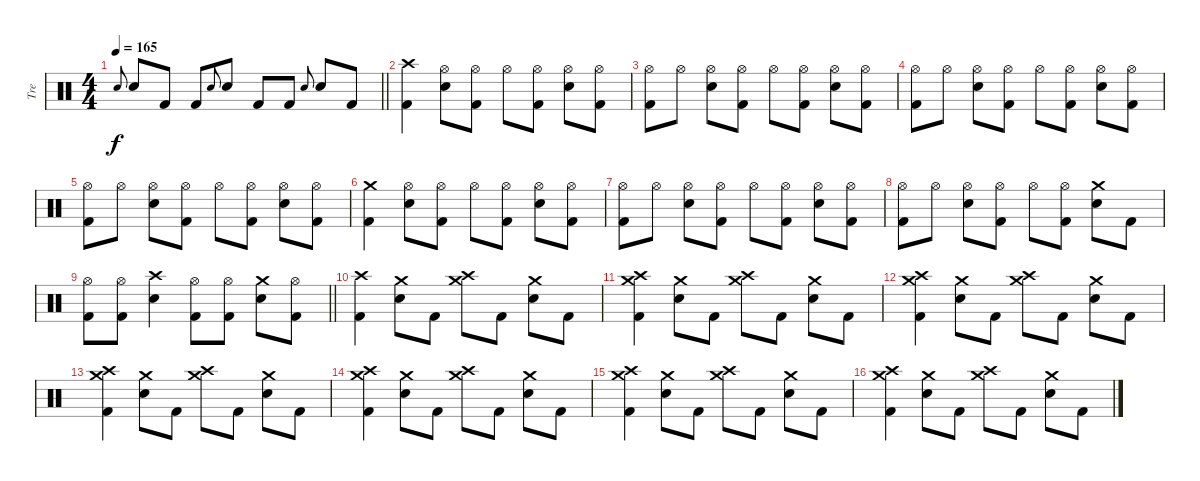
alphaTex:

\track ("Tre" "Tre") {instrument percussion}
\staff {score}
\articulation defaults
\ts (4 4)
\tempo 165
\clef neutral
\barLineRight lightlight
\ks c "Snare (hit) 2".8{gr onbeat dy f} "Snare (hit) 2".8 "Kick (hit) 2".8 "Kick (hit) 2".8 "Snare (hit) 2".8{gr onbeat} "Snare (hit) 2".8 "Kick (hit) 2".8 "Kick (hit) 2".8 "Snare (hit) 2".8{gr onbeat} "Snare (hit) 2".8 "Kick (hit) 2".8
|
("Crash high (hit)" "Kick (hit) 2").4 ("Hi-Hat (open)" "Snare (hit) 2").8 ("Hi-Hat (open)" "Kick (hit) 2").8 "Hi-Hat (open)".8 ("Hi-Hat (open)" "Kick (hit) 2").8 ("Hi-Hat (open)" "Snare (hit) 2").8 ("Hi-Hat (open)" "Kick (hit) 2").8 |
("Hi-Hat (open)" "Kick (hit) 2").8 "Hi-Hat (open)".8 ("Hi-Hat (open)" "Snare (hit) 2").8 ("Hi-Hat (open)" "Kick (hit) 2").8 "Hi-Hat (open)".8 ("Hi-Hat (open)" "Kick (hit) 2").8 ("Hi-Hat (open)" "Snare (hit) 2").8 ("Hi-Hat (open)" "Kick (hit) 2").8 |
("Hi-Hat (open)" "Kick (hit) 2").8 "Hi-Hat (open)".8 ("Hi-Hat (open)" "Snare (hit) 2").8 ("Hi-Hat (open)" "Kick (hit) 2").8 "Hi-Hat (open)".8 ("Hi-Hat (open)" "Kick (hit) 2").8 ("Hi-Hat (open)" "Snare (hit) 2").8 ("Hi-Hat (open)" "Kick (hit) 2").8 |
("Hi-Hat (open)" "Kick (hit) 2").8 "Hi-Hat (open)".8 ("Hi-Hat (open)" "Snare (hit) 2").8 ("Hi-Hat (open)" "Kick (hit) 2").8 "Hi-Hat (open)".8 ("Hi-Hat (open)" "Kick (hit) 2").8 ("Hi-Hat (open)" "Snare (hit) 2").8 ("Hi-Hat (open)" "Kick (hit) 2").8 |
("Crash medium (hit)" "Kick (hit) 2").4 ("Hi-Hat (open)" "Snare (hit) 2").8 ("Hi-Hat (open)" "Kick (hit) 2").8 "Hi-Hat (open)".8 ("Hi-Hat (open)" "Kick (hit) 2").8 ("Hi-Hat (open)" "Snare (hit) 2").8 ("Hi-Hat (open)" "Kick (hit) 2").8 |
("Hi-Hat (open)" "Kick (hit) 2").8 "Hi-Hat (open)".8 ("Hi-Hat (open)" "Snare (hit) 2").8 ("Hi-Hat (open)" "Kick (hit) 2").8 "Hi-Hat (open)".8 ("Hi-Hat (open)" "Kick (hit) 2").8 ("Hi-Hat (open)" "Snare (hit) 2").8 ("Hi-Hat (open)" "Kick (hit) 2").8 |
("Hi-Hat (open)" "Kick (hit) 2").8 "Hi-Hat (open)".8 ("Hi-Hat (open)" "Snare (hit) 2").8 ("Hi-Hat (open)" "Kick (hit) 2").8 "Hi-Hat (open)".8 ("Hi-Hat (open)" "Kick (hit) 2").8 ("Crash medium (hit)" "Snare (hit) 2").8 "Kick (hit) 2".8 |
\barLineRight lightlight
("Hi-Hat (open)" "Kick (hit) 2").8 ("Hi-Hat (open)" "Kick (hit) 2").8 ("Crash high (hit)" "Snare (hit) 2").4 ("Hi-Hat (open)" "Kick (hit) 2").8 ("Hi-Hat (open)" "Kick (hit) 2").8 ("Crash medium (hit)" "Snare (hit) 2").8 ("Hi-Hat (open)" "Kick (hit) 2").8 |
("Crash high (hit)" "Kick (hit) 2").4 ("Crash medium (hit)" "Snare (hit) 2").8 "Kick (hit) 2".8 ("Crash medium (hit)" "Crash high (hit)").8 "Kick (hit) 2".8 ("Crash medium (hit)" "Snare (hit) 2").8 "Kick (hit) 2".8 |
("Crash medium (hit)" "Crash high (hit)" "Kick (hit) 2").4 ("Crash medium (hit)" "Snare (hit) 2").8 "Kick (hit) 2".8 ("Crash medium (hit)" "Crash high (hit)").8 "Kick (hit) 2".8 ("Crash medium (hit)" "Snare (hit) 2").8 "Kick (hit) 2".8 |
("Crash medium (hit)" "Crash high (hit)" "Kick (hit) 2").4 ("Crash medium (hit)" "Snare (hit) 2").8 "Kick (hit) 2".8 ("Crash medium (hit)" "Crash high (hit)").8 "Kick (hit) 2".8 ("Crash medium (hit)" "Snare (hit) 2").8 "Kick (hit) 2".8 |
("Crash medium (hit)" "Crash high (hit)" "Kick (hit) 2").4 ("Crash medium (hit)" "Snare (hit) 2").8 "Kick (hit) 2".8 ("Crash medium (hit)" "Crash high (hit)").8 "Kick (hit) 2".8 ("Crash medium (hit)" "Snare (hit) 2").8 "Kick (hit) 2".8 |
("Crash medium (hit)" "Crash high (hit)" "Kick (hit) 2").4 ("Crash medium (hit)" "Snare (hit) 2").8 "Kick (hit) 2".8 ("Crash medium (hit)" "Crash high (hit)").8 "Kick (hit) 2".8 ("Crash medium (hit)" "Snare (hit) 2").8 "Kick (hit) 2".8 |
("Crash medium (hit)" "Crash high (hit)" "Kick (hit) 2").4 ("Crash medium (hit)" "Snare (hit) 2").8 "Kick (hit) 2".8 ("Crash medium (hit)" "Crash high (hit)").8 "Kick (hit) 2".8 ("Crash medium (hit)" "Snare (hit) 2").8 "Kick (hit) 2".8 |
("Crash medium (hit)" "Crash high (hit)" "Kick (hit) 2").4 ("Crash medium (hit)" "Snare (hit) 2").8 "Kick (hit) 2".8 ("Crash medium (hit)" "Crash high (hit)").8 "Kick (hit) 2".8 ("Crash medium (hit)" "Snare (hit) 2").8 "Kick (hit) 2".8
